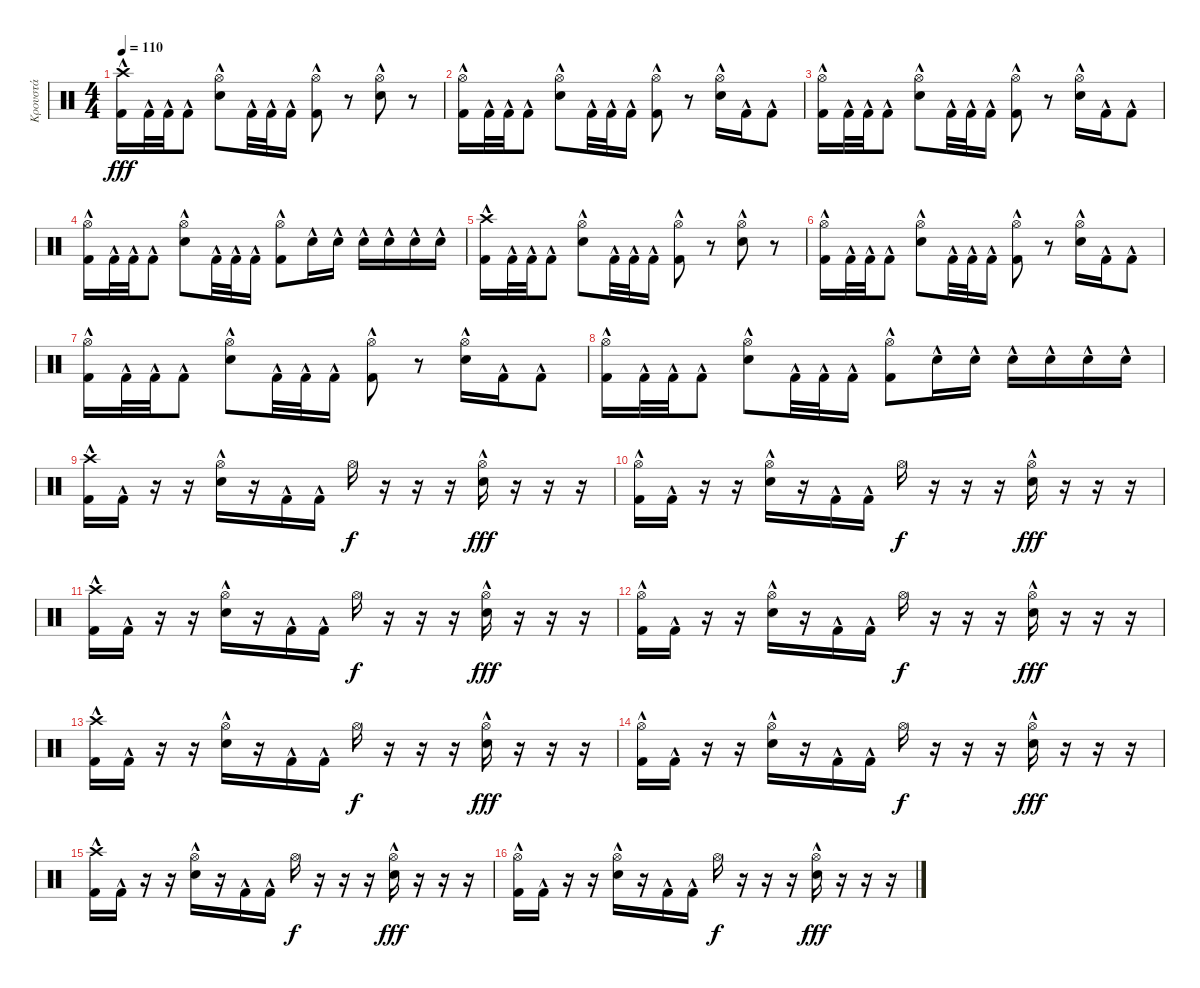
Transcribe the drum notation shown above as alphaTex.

\track ("Κρουστά" "Κρουστά") {instrument percussion}
\staff {score}
\articulation defaults
\ts (4 4)
\tempo 110
\clef neutral
\ks c
("Crash high (hit)" "Kick (hit) 2"{hac}).16{dy fff} "Kick (hit) 2"{hac}.32 "Kick (hit) 2"{hac}.32 "Kick (hit) 2"{hac}.8 ("Hi-Hat (open)" "Electric Snare (hit)"{hac}).8 "Kick (hit) 2"{hac}.32 "Kick (hit) 2"{hac}.32 "Kick (hit) 2"{hac}.16 ("Hi-Hat (open)" "Kick (hit) 2"{hac}).8 r.8 ("Hi-Hat (open)" "Electric Snare (hit)"{hac}).8 r.8 |
("Hi-Hat (open)" "Kick (hit) 2"{hac}).16 "Kick (hit) 2"{hac}.32 "Kick (hit) 2"{hac}.32 "Kick (hit) 2"{hac}.8 ("Hi-Hat (open)" "Electric Snare (hit)"{hac}).8 "Kick (hit) 2"{hac}.32 "Kick (hit) 2"{hac}.32 "Kick (hit) 2"{hac}.16 ("Hi-Hat (open)" "Kick (hit) 2"{hac}).8 r.8 ("Hi-Hat (open)" "Electric Snare (hit)"{hac}).16 "Kick (hit) 2"{hac}.16 "Kick (hit) 2"{hac}.8 |
("Hi-Hat (open)" "Kick (hit) 2"{hac}).16 "Kick (hit) 2"{hac}.32 "Kick (hit) 2"{hac}.32 "Kick (hit) 2"{hac}.8 ("Hi-Hat (open)" "Electric Snare (hit)"{hac}).8 "Kick (hit) 2"{hac}.32 "Kick (hit) 2"{hac}.32 "Kick (hit) 2"{hac}.16 ("Hi-Hat (open)" "Kick (hit) 2"{hac}).8 r.8 ("Hi-Hat (open)" "Electric Snare (hit)"{hac}).16 "Kick (hit) 2"{hac}.16 "Kick (hit) 2"{hac}.8 |
("Hi-Hat (open)" "Kick (hit) 2"{hac}).16 "Kick (hit) 2"{hac}.32 "Kick (hit) 2"{hac}.32 "Kick (hit) 2"{hac}.8 ("Hi-Hat (open)" "Electric Snare (hit)"{hac}).8 "Kick (hit) 2"{hac}.32 "Kick (hit) 2"{hac}.32 "Kick (hit) 2"{hac}.16 ("Hi-Hat (open)" "Kick (hit) 2"{hac}).8 "Electric Snare (hit)"{hac}.16 "Electric Snare (hit)"{hac}.16 "Electric Snare (hit)"{hac}.16 "Electric Snare (hit)"{hac}.16 "Electric Snare (hit)"{hac}.16 "Electric Snare (hit)"{hac}.16 |
("Crash high (hit)" "Kick (hit) 2"{hac}).16 "Kick (hit) 2"{hac}.32 "Kick (hit) 2"{hac}.32 "Kick (hit) 2"{hac}.8 ("Hi-Hat (open)" "Electric Snare (hit)"{hac}).8 "Kick (hit) 2"{hac}.32 "Kick (hit) 2"{hac}.32 "Kick (hit) 2"{hac}.16 ("Hi-Hat (open)" "Kick (hit) 2"{hac}).8 r.8 ("Hi-Hat (open)" "Electric Snare (hit)"{hac}).8 r.8 |
("Hi-Hat (open)" "Kick (hit) 2"{hac}).16 "Kick (hit) 2"{hac}.32 "Kick (hit) 2"{hac}.32 "Kick (hit) 2"{hac}.8 ("Hi-Hat (open)" "Electric Snare (hit)"{hac}).8 "Kick (hit) 2"{hac}.32 "Kick (hit) 2"{hac}.32 "Kick (hit) 2"{hac}.16 ("Hi-Hat (open)" "Kick (hit) 2"{hac}).8 r.8 ("Hi-Hat (open)" "Electric Snare (hit)"{hac}).16 "Kick (hit) 2"{hac}.16 "Kick (hit) 2"{hac}.8 |
("Hi-Hat (open)" "Kick (hit) 2"{hac}).16 "Kick (hit) 2"{hac}.32 "Kick (hit) 2"{hac}.32 "Kick (hit) 2"{hac}.8 ("Hi-Hat (open)" "Electric Snare (hit)"{hac}).8 "Kick (hit) 2"{hac}.32 "Kick (hit) 2"{hac}.32 "Kick (hit) 2"{hac}.16 ("Hi-Hat (open)" "Kick (hit) 2"{hac}).8 r.8 ("Hi-Hat (open)" "Electric Snare (hit)"{hac}).16 "Kick (hit) 2"{hac}.16 "Kick (hit) 2"{hac}.8 |
("Hi-Hat (open)" "Kick (hit) 2"{hac}).16 "Kick (hit) 2"{hac}.32 "Kick (hit) 2"{hac}.32 "Kick (hit) 2"{hac}.8 ("Hi-Hat (open)" "Electric Snare (hit)"{hac}).8 "Kick (hit) 2"{hac}.32 "Kick (hit) 2"{hac}.32 "Kick (hit) 2"{hac}.16 ("Hi-Hat (open)" "Kick (hit) 2"{hac}).8 "Electric Snare (hit)"{hac}.16 "Electric Snare (hit)"{hac}.16 "Electric Snare (hit)"{hac}.16 "Electric Snare (hit)"{hac}.16 "Electric Snare (hit)"{hac}.16 "Electric Snare (hit)"{hac}.16 |
("Crash high (hit)" "Kick (hit) 2"{hac}).16 "Kick (hit) 2"{hac}.16 r.16 r.16 ("Hi-Hat (open)" "Electric Snare (hit)"{hac}).16 r.16 "Kick (hit) 2"{hac}.16 "Kick (hit) 2"{hac}.16 "Hi-Hat (open)".16{dy f} r.16 r.16 r.16 ("Hi-Hat (open)" "Electric Snare (hit)"{hac}).16{dy fff} r.16 r.16 r.16 |
("Hi-Hat (open)" "Kick (hit) 2"{hac}).16 "Kick (hit) 2"{hac}.16 r.16 r.16 ("Hi-Hat (open)" "Electric Snare (hit)"{hac}).16 r.16 "Kick (hit) 2"{hac}.16 "Kick (hit) 2"{hac}.16 "Hi-Hat (open)".16{dy f} r.16 r.16 r.16 ("Hi-Hat (open)" "Electric Snare (hit)"{hac}).16{dy fff} r.16 r.16 r.16 |
("Crash high (hit)" "Kick (hit) 2"{hac}).16 "Kick (hit) 2"{hac}.16 r.16 r.16 ("Hi-Hat (open)" "Electric Snare (hit)"{hac}).16 r.16 "Kick (hit) 2"{hac}.16 "Kick (hit) 2"{hac}.16 "Hi-Hat (open)".16{dy f} r.16 r.16 r.16 ("Hi-Hat (open)" "Electric Snare (hit)"{hac}).16{dy fff} r.16 r.16 r.16 |
("Hi-Hat (open)" "Kick (hit) 2"{hac}).16 "Kick (hit) 2"{hac}.16 r.16 r.16 ("Hi-Hat (open)" "Electric Snare (hit)"{hac}).16 r.16 "Kick (hit) 2"{hac}.16 "Kick (hit) 2"{hac}.16 "Hi-Hat (open)".16{dy f} r.16 r.16 r.16 ("Hi-Hat (open)" "Electric Snare (hit)"{hac}).16{dy fff} r.16 r.16 r.16 |
("Crash high (hit)" "Kick (hit) 2"{hac}).16 "Kick (hit) 2"{hac}.16 r.16 r.16 ("Hi-Hat (open)" "Electric Snare (hit)"{hac}).16 r.16 "Kick (hit) 2"{hac}.16 "Kick (hit) 2"{hac}.16 "Hi-Hat (open)".16{dy f} r.16 r.16 r.16 ("Hi-Hat (open)" "Electric Snare (hit)"{hac}).16{dy fff} r.16 r.16 r.16 |
("Hi-Hat (open)" "Kick (hit) 2"{hac}).16 "Kick (hit) 2"{hac}.16 r.16 r.16 ("Hi-Hat (open)" "Electric Snare (hit)"{hac}).16 r.16 "Kick (hit) 2"{hac}.16 "Kick (hit) 2"{hac}.16 "Hi-Hat (open)".16{dy f} r.16 r.16 r.16 ("Hi-Hat (open)" "Electric Snare (hit)"{hac}).16{dy fff} r.16 r.16 r.16 |
("Crash high (hit)" "Kick (hit) 2"{hac}).16 "Kick (hit) 2"{hac}.16 r.16 r.16 ("Hi-Hat (open)" "Electric Snare (hit)"{hac}).16 r.16 "Kick (hit) 2"{hac}.16 "Kick (hit) 2"{hac}.16 "Hi-Hat (open)".16{dy f} r.16 r.16 r.16 ("Hi-Hat (open)" "Electric Snare (hit)"{hac}).16{dy fff} r.16 r.16 r.16 |
("Hi-Hat (open)" "Kick (hit) 2"{hac}).16 "Kick (hit) 2"{hac}.16 r.16 r.16 ("Hi-Hat (open)" "Electric Snare (hit)"{hac}).16 r.16 "Kick (hit) 2"{hac}.16 "Kick (hit) 2"{hac}.16 "Hi-Hat (open)".16{dy f} r.16 r.16 r.16 ("Hi-Hat (open)" "Electric Snare (hit)"{hac}).16{dy fff} r.16 r.16 r.16
